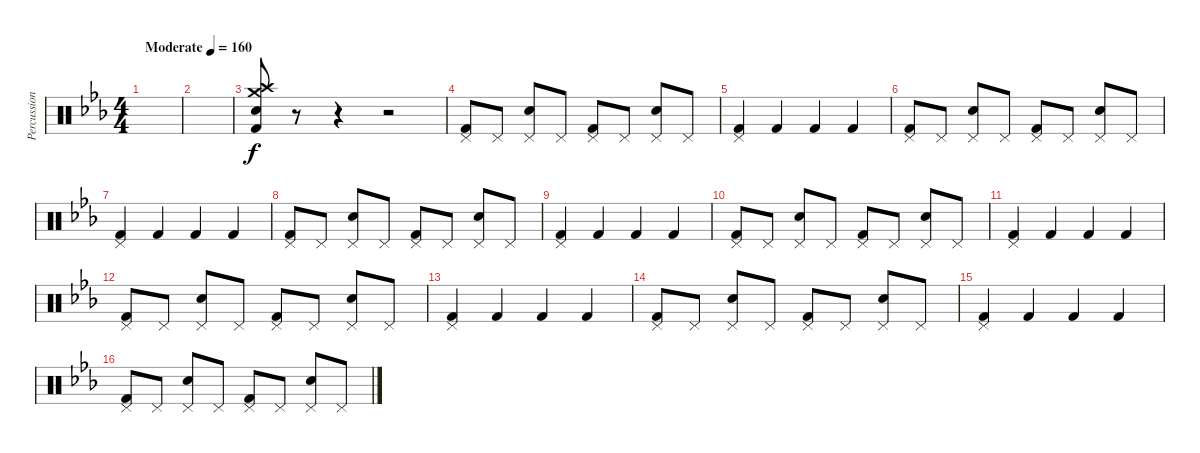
\track ("Percussions" "Percussion") {instrument percussion}
\staff {score}
\articulation defaults
\ts (4 4)
\tempo (160 "Moderate")
\clef neutral
\ks eb
|
|
("Kick (hit) 2" "Crash medium (hit)" "Crash high (hit)" "Electric Snare (hit)").8 r.8 r.4 r.2 |
("Pedal Hi-Hat (hit)" "Kick (hit) 2").8 "Pedal Hi-Hat (hit)".8 ("Pedal Hi-Hat (hit)" "Snare (hit) 2").8 "Pedal Hi-Hat (hit)".8 ("Pedal Hi-Hat (hit)" "Kick (hit) 2").8 "Pedal Hi-Hat (hit)".8 ("Pedal Hi-Hat (hit)" "Snare (hit) 2").8 "Pedal Hi-Hat (hit)".8 |
("Pedal Hi-Hat (hit)" "Kick (hit) 2").4 "Kick (hit) 2".4 "Kick (hit) 2".4 "Kick (hit) 2".4 |
("Pedal Hi-Hat (hit)" "Kick (hit) 2").8 "Pedal Hi-Hat (hit)".8 ("Pedal Hi-Hat (hit)" "Snare (hit) 2").8 "Pedal Hi-Hat (hit)".8 ("Pedal Hi-Hat (hit)" "Kick (hit) 2").8 "Pedal Hi-Hat (hit)".8 ("Pedal Hi-Hat (hit)" "Snare (hit) 2").8 "Pedal Hi-Hat (hit)".8 |
("Pedal Hi-Hat (hit)" "Kick (hit) 2").4 "Kick (hit) 2".4 "Kick (hit) 2".4 "Kick (hit) 2".4 |
("Pedal Hi-Hat (hit)" "Kick (hit) 2").8 "Pedal Hi-Hat (hit)".8 ("Pedal Hi-Hat (hit)" "Snare (hit) 2").8 "Pedal Hi-Hat (hit)".8 ("Pedal Hi-Hat (hit)" "Kick (hit) 2").8 "Pedal Hi-Hat (hit)".8 ("Pedal Hi-Hat (hit)" "Snare (hit) 2").8 "Pedal Hi-Hat (hit)".8 |
("Pedal Hi-Hat (hit)" "Kick (hit) 2").4 "Kick (hit) 2".4 "Kick (hit) 2".4 "Kick (hit) 2".4 |
("Pedal Hi-Hat (hit)" "Kick (hit) 2").8 "Pedal Hi-Hat (hit)".8 ("Pedal Hi-Hat (hit)" "Snare (hit) 2").8 "Pedal Hi-Hat (hit)".8 ("Pedal Hi-Hat (hit)" "Kick (hit) 2").8 "Pedal Hi-Hat (hit)".8 ("Pedal Hi-Hat (hit)" "Snare (hit) 2").8 "Pedal Hi-Hat (hit)".8 |
("Pedal Hi-Hat (hit)" "Kick (hit) 2").4 "Kick (hit) 2".4 "Kick (hit) 2".4 "Kick (hit) 2".4 |
("Pedal Hi-Hat (hit)" "Kick (hit) 2").8 "Pedal Hi-Hat (hit)".8 ("Pedal Hi-Hat (hit)" "Snare (hit) 2").8 "Pedal Hi-Hat (hit)".8 ("Pedal Hi-Hat (hit)" "Kick (hit) 2").8 "Pedal Hi-Hat (hit)".8 ("Pedal Hi-Hat (hit)" "Snare (hit) 2").8 "Pedal Hi-Hat (hit)".8 |
("Pedal Hi-Hat (hit)" "Kick (hit) 2").4 "Kick (hit) 2".4 "Kick (hit) 2".4 "Kick (hit) 2".4 |
("Pedal Hi-Hat (hit)" "Kick (hit) 2").8 "Pedal Hi-Hat (hit)".8 ("Pedal Hi-Hat (hit)" "Snare (hit) 2").8 "Pedal Hi-Hat (hit)".8 ("Pedal Hi-Hat (hit)" "Kick (hit) 2").8 "Pedal Hi-Hat (hit)".8 ("Pedal Hi-Hat (hit)" "Snare (hit) 2").8 "Pedal Hi-Hat (hit)".8 |
("Pedal Hi-Hat (hit)" "Kick (hit) 2").4 "Kick (hit) 2".4 "Kick (hit) 2".4 "Kick (hit) 2".4 |
("Pedal Hi-Hat (hit)" "Kick (hit) 2").8 "Pedal Hi-Hat (hit)".8 ("Pedal Hi-Hat (hit)" "Snare (hit) 2").8 "Pedal Hi-Hat (hit)".8 ("Pedal Hi-Hat (hit)" "Kick (hit) 2").8 "Pedal Hi-Hat (hit)".8 ("Pedal Hi-Hat (hit)" "Snare (hit) 2").8 "Pedal Hi-Hat (hit)".8
